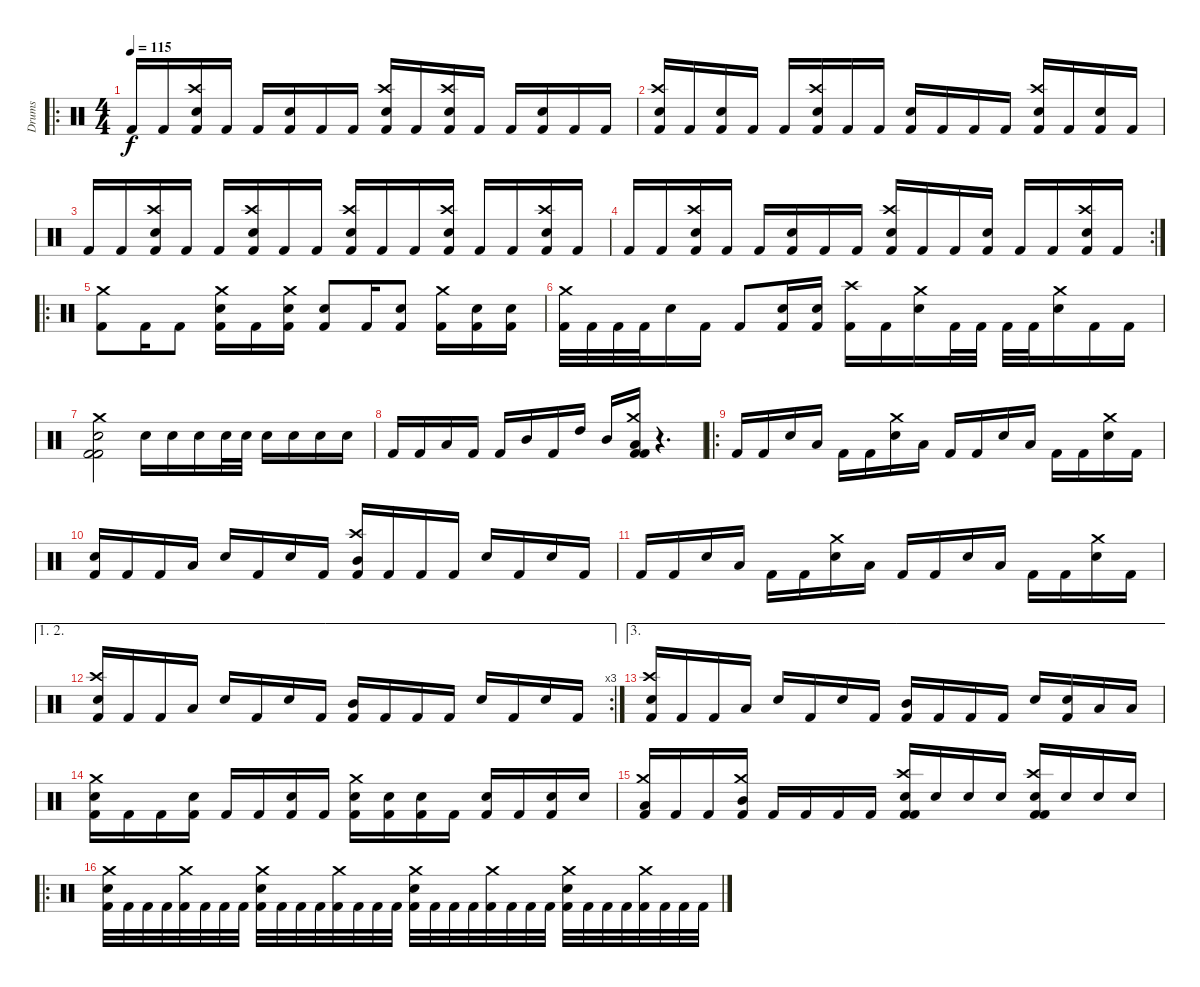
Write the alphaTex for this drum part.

\track ("Drums" "Drums") {instrument percussion}
\staff {score}
\articulation defaults
\ro
\ts (4 4)
\tempo 115
\clef neutral
\ks c "Kick (hit) 2".16{dy f} "Kick (hit) 2".16
("Crash high (hit)" "Electric Snare (hit)" "Kick (hit) 2").16 "Kick (hit) 2".16 "Kick (hit) 2".16 ("Electric Snare (hit)" "Kick (hit) 2").16 "Kick (hit) 2".16 "Kick (hit) 2".16 ("Crash high (hit)" "Electric Snare (hit)" "Kick (hit) 2").16 "Kick (hit) 2".16 ("Crash high (hit)" "Electric Snare (hit)" "Kick (hit) 2").16 "Kick (hit) 2".16 "Kick (hit) 2".16 ("Electric Snare (hit)" "Kick (hit) 2").16 "Kick (hit) 2".16 "Kick (hit) 2".16 |
("Crash high (hit)" "Electric Snare (hit)" "Kick (hit) 2").16 "Kick (hit) 2".16 ("Electric Snare (hit)" "Kick (hit) 2").16 "Kick (hit) 2".16 "Kick (hit) 2".16 ("Crash high (hit)" "Electric Snare (hit)" "Kick (hit) 2").16 "Kick (hit) 2".16 "Kick (hit) 2".16 ("Electric Snare (hit)" "Kick (hit) 2").16 "Kick (hit) 2".16 "Kick (hit) 2".16 "Kick (hit) 2".16 ("Crash high (hit)" "Electric Snare (hit)" "Kick (hit) 2").16 "Kick (hit) 2".16 ("Electric Snare (hit)" "Kick (hit) 2").16 "Kick (hit) 2".16 |
"Kick (hit) 2".16 "Kick (hit) 2".16 ("Crash high (hit)" "Electric Snare (hit)" "Kick (hit) 2").16 "Kick (hit) 2".16 "Kick (hit) 2".16 ("Crash high (hit)" "Electric Snare (hit)" "Kick (hit) 2").16 "Kick (hit) 2".16 "Kick (hit) 2".16 ("Crash high (hit)" "Electric Snare (hit)" "Kick (hit) 2").16 "Kick (hit) 2".16 "Kick (hit) 2".16 ("Crash high (hit)" "Electric Snare (hit)" "Kick (hit) 2").16 "Kick (hit) 2".16 "Kick (hit) 2".16 ("Crash high (hit)" "Electric Snare (hit)" "Kick (hit) 2").16 "Kick (hit) 2".16 |
\rc 2 "Kick (hit) 2".16 "Kick (hit) 2".16
("Crash high (hit)" "Electric Snare (hit)" "Kick (hit) 2").16 "Kick (hit) 2".16 "Kick (hit) 2".16 ("Electric Snare (hit)" "Kick (hit) 2").16 "Kick (hit) 2".16 "Kick (hit) 2".16 ("Crash high (hit)" "Electric Snare (hit)" "Kick (hit) 2").16 "Kick (hit) 2".16 "Kick (hit) 2".16 ("Electric Snare (hit)" "Kick (hit) 2").16 "Kick (hit) 2".16 "Kick (hit) 2".16 ("Crash high (hit)" "Electric Snare (hit)" "Kick (hit) 2").16 "Kick (hit) 2".16 |
\ro
("Crash medium (hit)" "Kick (hit) 2").8 "Kick (hit) 2".16 "Kick (hit) 2".8 ("Crash medium (hit)" "Electric Snare (hit)" "Kick (hit) 2").16 "Kick (hit) 2".16 ("Crash medium (hit)" "Electric Snare (hit)" "Kick (hit) 2").16 ("Electric Snare (hit)" "Kick (hit) 2").8 "Kick (hit) 2".16 ("Electric Snare (hit)" "Kick (hit) 2").8 ("Crash medium (hit)" "Kick (hit) 2").16 ("Electric Snare (hit)" "Kick (hit) 2").16 ("Electric Snare (hit)" "Kick (hit) 2").16 |
("Crash medium (hit)" "Kick (hit) 2").32 "Kick (hit) 2".32 "Kick (hit) 2".32 "Kick (hit) 2".32 "Electric Snare (hit)".16 "Kick (hit) 2".16 "Kick (hit) 2".8 ("Electric Snare (hit)" "Kick (hit) 2").16 ("Electric Snare (hit)" "Kick (hit) 2").16 ("Crash high (hit)" "Kick (hit) 2").16 "Kick (hit) 2".16 ("Crash medium (hit)" "Electric Snare (hit)").16 "Kick (hit) 2".32 "Kick (hit) 2".32 "Kick (hit) 2".32 "Kick (hit) 2".32 ("Crash medium (hit)" "Electric Snare (hit)").16 "Kick (hit) 2".16 "Kick (hit) 2".16 |
("Crash medium (hit)" "Electric Snare (hit)" "Kick (hit) 2" "Kick (hit) 2").2 "Electric Snare (hit)".16 "Electric Snare (hit)".16 "Electric Snare (hit)".16 "Electric Snare (hit)".32 "Electric Snare (hit)".32 "Electric Snare (hit)".16 "Electric Snare (hit)".16 "Electric Snare (hit)".16 "Electric Snare (hit)".16 |
"Kick (hit) 2".16 "Kick (hit) 2".16 "Low Tom (hit)".16 "Kick (hit) 2".16 "Kick (hit) 2".16 "Mid Tom (hit)".16 "Kick (hit) 2".16 "High Tom (hit)".16 "Mid Tom (hit)".16 ("Crash medium (hit)" "Low Tom (hit)" "Kick (hit) 2" "Kick (hit) 2").16 r.4{d} |
\ro "Kick (hit) 2".16 "Kick (hit) 2".16 "Electric Snare (hit)".16 "Low Tom (hit)".16 "Kick (hit) 2".16 "Kick (hit) 2".16
("Crash medium (hit)" "Electric Snare (hit)").16 "Low Tom (hit)".16 "Kick (hit) 2".16 "Kick (hit) 2".16 "Electric Snare (hit)".16 "Low Tom (hit)".16 "Kick (hit) 2".16 "Kick (hit) 2".16 ("Crash medium (hit)" "Electric Snare (hit)").16 "Kick (hit) 2".16 |
("Electric Snare (hit)" "Kick (hit) 2").16 "Kick (hit) 2".16 "Kick (hit) 2".16 "Low Tom (hit)".16 "Electric Snare (hit)".16 "Kick (hit) 2".16 "Electric Snare (hit)".16 "Kick (hit) 2".16 ("Crash high (hit)" "Mid Tom (hit)" "Kick (hit) 2").16 "Kick (hit) 2".16 "Kick (hit) 2".16 "Kick (hit) 2".16 "Electric Snare (hit)".16 "Kick (hit) 2".16 "Electric Snare (hit)".16 "Kick (hit) 2".16 |
"Kick (hit) 2".16 "Kick (hit) 2".16 "Electric Snare (hit)".16 "Low Tom (hit)".16 "Kick (hit) 2".16 "Kick (hit) 2".16 ("Crash medium (hit)" "Electric Snare (hit)").16 "Low Tom (hit)".16 "Kick (hit) 2".16 "Kick (hit) 2".16 "Electric Snare (hit)".16 "Low Tom (hit)".16 "Kick (hit) 2".16 "Kick (hit) 2".16 ("Crash medium (hit)" "Electric Snare (hit)").16 "Kick (hit) 2".16 |
\ae (1 2)
\rc 3
("Crash high (hit)" "Electric Snare (hit)" "Kick (hit) 2").16 "Kick (hit) 2".16 "Kick (hit) 2".16 "Low Tom (hit)".16 "Electric Snare (hit)".16 "Kick (hit) 2".16 "Electric Snare (hit)".16 "Kick (hit) 2".16 ("Mid Tom (hit)" "Kick (hit) 2").16 "Kick (hit) 2".16 "Kick (hit) 2".16 "Kick (hit) 2".16 "Electric Snare (hit)".16 "Kick (hit) 2".16 "Electric Snare (hit)".16 "Kick (hit) 2".16 |
\ae 3
("Crash high (hit)" "Electric Snare (hit)" "Kick (hit) 2").16 "Kick (hit) 2".16 "Kick (hit) 2".16 "Low Tom (hit)".16 "Electric Snare (hit)".16 "Kick (hit) 2".16 "Electric Snare (hit)".16 "Kick (hit) 2".16 ("Mid Tom (hit)" "Kick (hit) 2").16 "Kick (hit) 2".16 "Kick (hit) 2".16 "Kick (hit) 2".16 "Electric Snare (hit)".16 ("Electric Snare (hit)" "Kick (hit) 2").16 "Low Floor Tom (hit)".16 "Low Tom (hit)".16 |
("Crash medium (hit)" "Electric Snare (hit)" "Kick (hit) 2").16 "Kick (hit) 2".16 "Kick (hit) 2".16 ("Electric Snare (hit)" "Kick (hit) 2").16 "Kick (hit) 2".16 "Kick (hit) 2".16 ("Electric Snare (hit)" "Kick (hit) 2").16 "Kick (hit) 2".16 ("Crash medium (hit)" "Electric Snare (hit)" "Kick (hit) 2").16 ("Electric Snare (hit)" "Kick (hit) 2").16 ("Electric Snare (hit)" "Kick (hit) 2").16 "Kick (hit) 2".16 ("Electric Snare (hit)" "Kick (hit) 2").16 "Kick (hit) 2".16 ("Electric Snare (hit)" "Kick (hit) 2").16 "Electric Snare (hit)".16 |
("Crash medium (hit)" "Low Tom (hit)" "Kick (hit) 2").16 "Kick (hit) 2".16 "Kick (hit) 2".16 ("Crash medium (hit)" "Mid Tom (hit)" "Kick (hit) 2").16 "Kick (hit) 2".16 "Kick (hit) 2".16 "Kick (hit) 2".16 "Kick (hit) 2".16 ("Crash high (hit)" "Electric Snare (hit)" "Kick (hit) 2" "Kick (hit) 2").16 "Electric Snare (hit)".16 "Electric Snare (hit)".16 "Electric Snare (hit)".16 ("Crash high (hit)" "Electric Snare (hit)" "Kick (hit) 2" "Kick (hit) 2").16 "Electric Snare (hit)".16 "Electric Snare (hit)".16 "Electric Snare (hit)".16 |
\ro
("Crash medium (hit)" "Electric Snare (hit)" "Kick (hit) 2").32 "Kick (hit) 2".32 "Kick (hit) 2".32 "Kick (hit) 2".32 ("Crash medium (hit)" "Kick (hit) 2").32 "Kick (hit) 2".32 "Kick (hit) 2".32 "Kick (hit) 2".32 ("Crash medium (hit)" "Electric Snare (hit)" "Kick (hit) 2").32 "Kick (hit) 2".32 "Kick (hit) 2".32 "Kick (hit) 2".32 ("Crash medium (hit)" "Kick (hit) 2").32 "Kick (hit) 2".32 "Kick (hit) 2".32 "Kick (hit) 2".32 ("Crash medium (hit)" "Electric Snare (hit)" "Kick (hit) 2").32 "Kick (hit) 2".32 "Kick (hit) 2".32 "Kick (hit) 2".32 ("Crash medium (hit)" "Kick (hit) 2").32 "Kick (hit) 2".32 "Kick (hit) 2".32 "Kick (hit) 2".32 ("Crash medium (hit)" "Electric Snare (hit)" "Kick (hit) 2").32 "Kick (hit) 2".32 "Kick (hit) 2".32 "Kick (hit) 2".32 ("Crash medium (hit)" "Kick (hit) 2").32 "Kick (hit) 2".32 "Kick (hit) 2".32 "Kick (hit) 2".32
